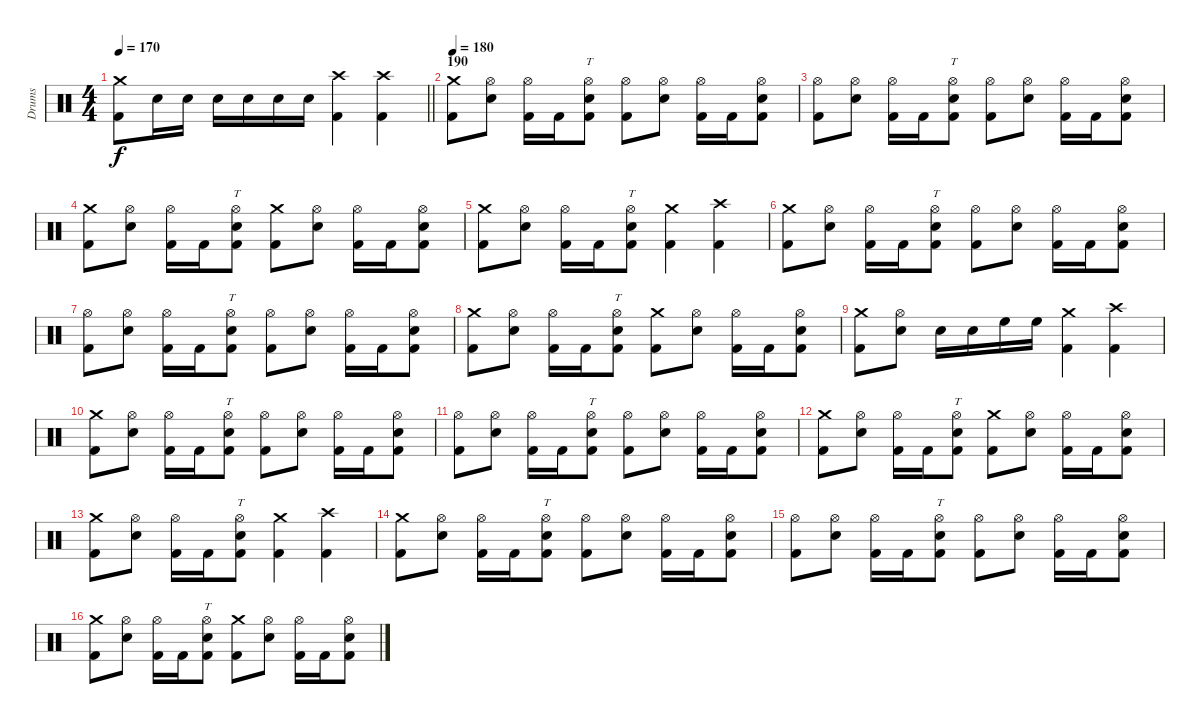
\track ("Drums" "Drums") {instrument percussion}
\staff {score}
\articulation defaults
\ts (4 4)
\tempo 170
\clef neutral
\barLineRight lightlight
\ks c
("Crash medium (hit)" "Kick (hit) 2").8{dy f} "Electric Snare (hit)".16 "Electric Snare (hit)".16 "Electric Snare (hit)".16 "Electric Snare (hit)".16 "Electric Snare (hit)".16 "Electric Snare (hit)".16 ("Crash high (hit)" "Kick (hit) 2").4 ("Crash high (hit)" "Kick (hit) 2").4 |
\section ("" "190")
\tempo 180
("Crash medium (hit)" "Kick (hit) 2").8 ("Hi-Hat (open)" "Electric Snare (hit)").8 ("Hi-Hat (open)" "Kick (hit) 2").16 "Kick (hit) 2".16 ("Hi-Hat (open)" "Electric Snare (hit)" "Kick (hit) 2").8{tt} ("Hi-Hat (open)" "Kick (hit) 2").8 ("Hi-Hat (open)" "Electric Snare (hit)").8 ("Hi-Hat (open)" "Kick (hit) 2").16 "Kick (hit) 2".16 ("Hi-Hat (open)" "Electric Snare (hit)" "Kick (hit) 2").8 |
("Hi-Hat (open)" "Kick (hit) 2").8 ("Hi-Hat (open)" "Electric Snare (hit)").8 ("Hi-Hat (open)" "Kick (hit) 2").16 "Kick (hit) 2".16 ("Hi-Hat (open)" "Electric Snare (hit)" "Kick (hit) 2").8{tt} ("Hi-Hat (open)" "Kick (hit) 2").8 ("Hi-Hat (open)" "Electric Snare (hit)").8 ("Hi-Hat (open)" "Kick (hit) 2").16 "Kick (hit) 2".16 ("Hi-Hat (open)" "Electric Snare (hit)" "Kick (hit) 2").8 |
("Crash medium (hit)" "Kick (hit) 2").8 ("Hi-Hat (open)" "Electric Snare (hit)").8 ("Hi-Hat (open)" "Kick (hit) 2").16 "Kick (hit) 2".16 ("Hi-Hat (open)" "Electric Snare (hit)" "Kick (hit) 2").8{tt} ("Crash medium (hit)" "Kick (hit) 2").8 ("Hi-Hat (open)" "Electric Snare (hit)").8 ("Hi-Hat (open)" "Kick (hit) 2").16 "Kick (hit) 2".16 ("Hi-Hat (open)" "Electric Snare (hit)" "Kick (hit) 2").8 |
("Crash medium (hit)" "Kick (hit) 2").8 ("Hi-Hat (open)" "Electric Snare (hit)").8 ("Hi-Hat (open)" "Kick (hit) 2").16 "Kick (hit) 2".16 ("Hi-Hat (open)" "Electric Snare (hit)" "Kick (hit) 2").8{tt} ("Crash medium (hit)" "Kick (hit) 2").4 ("Crash high (hit)" "Kick (hit) 2").4 |
("Crash medium (hit)" "Kick (hit) 2").8 ("Hi-Hat (open)" "Electric Snare (hit)").8 ("Hi-Hat (open)" "Kick (hit) 2").16 "Kick (hit) 2".16 ("Hi-Hat (open)" "Electric Snare (hit)" "Kick (hit) 2").8{tt} ("Hi-Hat (open)" "Kick (hit) 2").8 ("Hi-Hat (open)" "Electric Snare (hit)").8 ("Hi-Hat (open)" "Kick (hit) 2").16 "Kick (hit) 2".16 ("Hi-Hat (open)" "Electric Snare (hit)" "Kick (hit) 2").8 |
("Hi-Hat (open)" "Kick (hit) 2").8 ("Hi-Hat (open)" "Electric Snare (hit)").8 ("Hi-Hat (open)" "Kick (hit) 2").16 "Kick (hit) 2".16 ("Hi-Hat (open)" "Electric Snare (hit)" "Kick (hit) 2").8{tt} ("Hi-Hat (open)" "Kick (hit) 2").8 ("Hi-Hat (open)" "Electric Snare (hit)").8 ("Hi-Hat (open)" "Kick (hit) 2").16 "Kick (hit) 2".16 ("Hi-Hat (open)" "Electric Snare (hit)" "Kick (hit) 2").8 |
("Crash medium (hit)" "Kick (hit) 2").8 ("Hi-Hat (open)" "Electric Snare (hit)").8 ("Hi-Hat (open)" "Kick (hit) 2").16 "Kick (hit) 2".16 ("Hi-Hat (open)" "Electric Snare (hit)" "Kick (hit) 2").8{tt} ("Crash medium (hit)" "Kick (hit) 2").8 ("Hi-Hat (open)" "Electric Snare (hit)").8 ("Hi-Hat (open)" "Kick (hit) 2").16 "Kick (hit) 2".16 ("Hi-Hat (open)" "Electric Snare (hit)" "Kick (hit) 2").8 |
("Crash medium (hit)" "Kick (hit) 2").8 ("Hi-Hat (open)" "Electric Snare (hit)").8 "Electric Snare (hit)".16 "Electric Snare (hit)".16 "High Floor Tom (hit)".16 "High Floor Tom (hit)".16 ("Crash medium (hit)" "Kick (hit) 2").4 ("Crash high (hit)" "Kick (hit) 2").4 |
("Crash medium (hit)" "Kick (hit) 2").8 ("Hi-Hat (open)" "Electric Snare (hit)").8 ("Hi-Hat (open)" "Kick (hit) 2").16 "Kick (hit) 2".16 ("Hi-Hat (open)" "Electric Snare (hit)" "Kick (hit) 2").8{tt} ("Hi-Hat (open)" "Kick (hit) 2").8 ("Hi-Hat (open)" "Electric Snare (hit)").8 ("Hi-Hat (open)" "Kick (hit) 2").16 "Kick (hit) 2".16 ("Hi-Hat (open)" "Electric Snare (hit)" "Kick (hit) 2").8 |
("Hi-Hat (open)" "Kick (hit) 2").8 ("Hi-Hat (open)" "Electric Snare (hit)").8 ("Hi-Hat (open)" "Kick (hit) 2").16 "Kick (hit) 2".16 ("Hi-Hat (open)" "Electric Snare (hit)" "Kick (hit) 2").8{tt} ("Hi-Hat (open)" "Kick (hit) 2").8 ("Hi-Hat (open)" "Electric Snare (hit)").8 ("Hi-Hat (open)" "Kick (hit) 2").16 "Kick (hit) 2".16 ("Hi-Hat (open)" "Electric Snare (hit)" "Kick (hit) 2").8 |
("Crash medium (hit)" "Kick (hit) 2").8 ("Hi-Hat (open)" "Electric Snare (hit)").8 ("Hi-Hat (open)" "Kick (hit) 2").16 "Kick (hit) 2".16 ("Hi-Hat (open)" "Electric Snare (hit)" "Kick (hit) 2").8{tt} ("Crash medium (hit)" "Kick (hit) 2").8 ("Hi-Hat (open)" "Electric Snare (hit)").8 ("Hi-Hat (open)" "Kick (hit) 2").16 "Kick (hit) 2".16 ("Hi-Hat (open)" "Electric Snare (hit)" "Kick (hit) 2").8 |
("Crash medium (hit)" "Kick (hit) 2").8 ("Hi-Hat (open)" "Electric Snare (hit)").8 ("Hi-Hat (open)" "Kick (hit) 2").16 "Kick (hit) 2".16 ("Hi-Hat (open)" "Electric Snare (hit)" "Kick (hit) 2").8{tt} ("Crash medium (hit)" "Kick (hit) 2").4 ("Crash high (hit)" "Kick (hit) 2").4 |
("Crash medium (hit)" "Kick (hit) 2").8 ("Hi-Hat (open)" "Electric Snare (hit)").8 ("Hi-Hat (open)" "Kick (hit) 2").16 "Kick (hit) 2".16 ("Hi-Hat (open)" "Electric Snare (hit)" "Kick (hit) 2").8{tt} ("Hi-Hat (open)" "Kick (hit) 2").8 ("Hi-Hat (open)" "Electric Snare (hit)").8 ("Hi-Hat (open)" "Kick (hit) 2").16 "Kick (hit) 2".16 ("Hi-Hat (open)" "Electric Snare (hit)" "Kick (hit) 2").8 |
("Hi-Hat (open)" "Kick (hit) 2").8 ("Hi-Hat (open)" "Electric Snare (hit)").8 ("Hi-Hat (open)" "Kick (hit) 2").16 "Kick (hit) 2".16 ("Hi-Hat (open)" "Electric Snare (hit)" "Kick (hit) 2").8{tt} ("Hi-Hat (open)" "Kick (hit) 2").8 ("Hi-Hat (open)" "Electric Snare (hit)").8 ("Hi-Hat (open)" "Kick (hit) 2").16 "Kick (hit) 2".16 ("Hi-Hat (open)" "Electric Snare (hit)" "Kick (hit) 2").8 |
("Crash medium (hit)" "Kick (hit) 2").8 ("Hi-Hat (open)" "Electric Snare (hit)").8 ("Hi-Hat (open)" "Kick (hit) 2").16 "Kick (hit) 2".16 ("Hi-Hat (open)" "Electric Snare (hit)" "Kick (hit) 2").8{tt} ("Crash medium (hit)" "Kick (hit) 2").8 ("Hi-Hat (open)" "Electric Snare (hit)").8 ("Hi-Hat (open)" "Kick (hit) 2").16 "Kick (hit) 2".16 ("Hi-Hat (open)" "Electric Snare (hit)" "Kick (hit) 2").8
